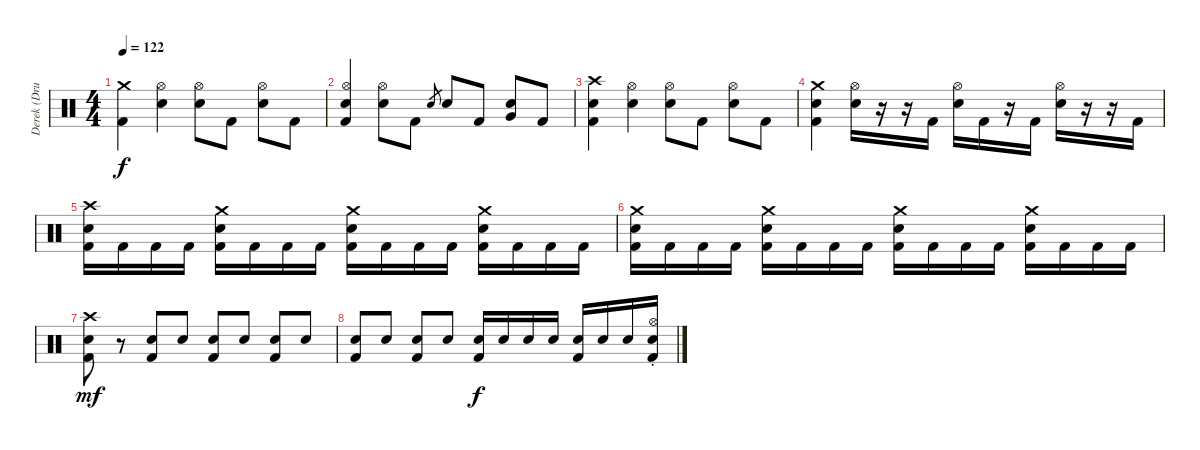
\track ("Derek (Drums)" "Derek (Dru") {instrument percussion}
\staff {score}
\articulation defaults
\ts (4 4)
\tempo 122
\clef neutral
\ks c
("Crash medium (hit)" "Kick (hit) 2").4{dy f} ("Hi-Hat (open)" "Electric Snare (hit)").4 ("Hi-Hat (open)" "Electric Snare (hit)").8 "Kick (hit) 2".8 ("Hi-Hat (open)" "Electric Snare (hit)").8 "Kick (hit) 2".8 |
("Hi-Hat (open)" "Electric Snare (hit)" "Kick (hit) 2").4 ("Hi-Hat (open)" "Electric Snare (hit)").8 "Kick (hit) 2".8 "Electric Snare (hit)".8{gr} "Electric Snare (hit)".8 "Kick (hit) 2".8 ("Very Low Tom (hit)" "Electric Snare (hit)").8 "Kick (hit) 2".8 |
("Crash high (hit)" "Electric Snare (hit)" "Kick (hit) 2").4 ("Hi-Hat (open)" "Electric Snare (hit)").4 ("Hi-Hat (open)" "Electric Snare (hit)").8 "Kick (hit) 2".8 ("Hi-Hat (open)" "Electric Snare (hit)").8 "Kick (hit) 2".8 |
("Crash medium (hit)" "Electric Snare (hit)" "Kick (hit) 2").4 ("Hi-Hat (open)" "Electric Snare (hit)").16 r.16 r.16 "Kick (hit) 2".16 ("Hi-Hat (open)" "Electric Snare (hit)").16 "Kick (hit) 2".16 r.16 "Kick (hit) 2".16 ("Hi-Hat (open)" "Electric Snare (hit)").16 r.16 r.16 "Kick (hit) 2".16 |
("Crash high (hit)" "Electric Snare (hit)" "Kick (hit) 2").16 "Kick (hit) 2".16 "Kick (hit) 2".16 "Kick (hit) 2".16 ("Crash medium (hit)" "Electric Snare (hit)" "Kick (hit) 2").16 "Kick (hit) 2".16 "Kick (hit) 2".16 "Kick (hit) 2".16 ("Crash medium (hit)" "Electric Snare (hit)" "Kick (hit) 2").16 "Kick (hit) 2".16 "Kick (hit) 2".16 "Kick (hit) 2".16 ("Crash medium (hit)" "Electric Snare (hit)" "Kick (hit) 2").16 "Kick (hit) 2".16 "Kick (hit) 2".16 "Kick (hit) 2".16 |
("Crash medium (hit)" "Electric Snare (hit)" "Kick (hit) 2").16 "Kick (hit) 2".16 "Kick (hit) 2".16 "Kick (hit) 2".16 ("Crash medium (hit)" "Electric Snare (hit)" "Kick (hit) 2").16 "Kick (hit) 2".16 "Kick (hit) 2".16 "Kick (hit) 2".16 ("Crash medium (hit)" "Electric Snare (hit)" "Kick (hit) 2").16 "Kick (hit) 2".16 "Kick (hit) 2".16 "Kick (hit) 2".16 ("Crash medium (hit)" "Electric Snare (hit)" "Kick (hit) 2").16 "Kick (hit) 2".16 "Kick (hit) 2".16 "Kick (hit) 2".16 |
("Crash high (hit)" "Electric Snare (hit)" "Kick (hit) 2").8{dy mf} r.8 ("Electric Snare (hit)" "Kick (hit) 2").8 "Electric Snare (hit)".8 ("Electric Snare (hit)" "Kick (hit) 2").8 "Electric Snare (hit)".8 ("Electric Snare (hit)" "Kick (hit) 2").8 "Electric Snare (hit)".8 |
("Electric Snare (hit)" "Kick (hit) 2").8 "Electric Snare (hit)".8 ("Electric Snare (hit)" "Kick (hit) 2").8 "Electric Snare (hit)".8 ("Electric Snare (hit)" "Kick (hit) 2").16{dy f} "Electric Snare (hit)".16 "Electric Snare (hit)".16 "Electric Snare (hit)".16 ("Electric Snare (hit)" "Kick (hit) 2").16 "Electric Snare (hit)".16 "Electric Snare (hit)".16 ("Hi-Hat (open)"{st} "Electric Snare (hit)" "Kick (hit) 2").16
